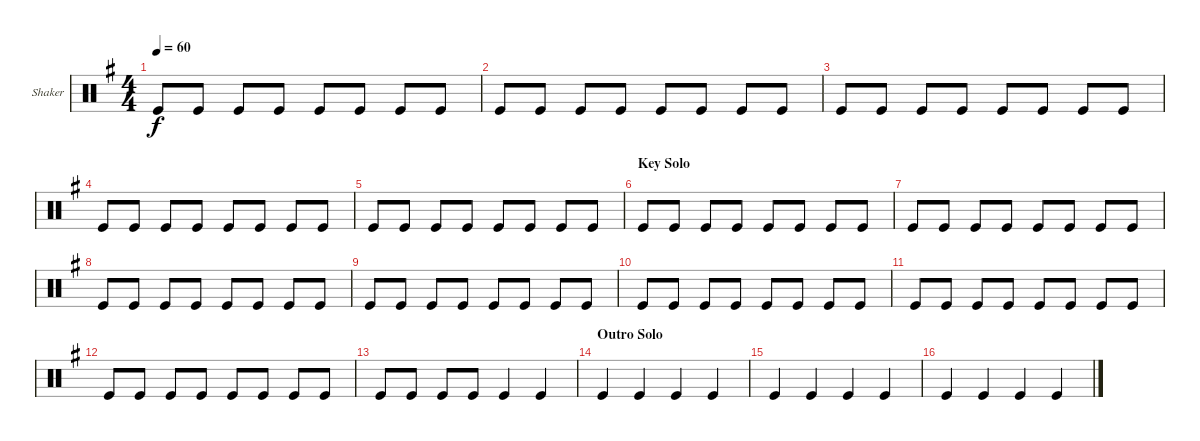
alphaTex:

\defaultSystemsLayout 4
\bracketExtendMode groupsimilarinstruments
\firstSystemTrackNameOrientation horizontal
\otherSystemsTrackNameOrientation horizontal
\track ("Shaker" "Shaker") {instrument percussion}
\staff {score}
\articulation defaults
\ts (4 4)
\tempo 60
\clef neutral
\scale
0.333333
\ks g "Kick (hit)".8{dy f} "Kick (hit)".8 "Kick (hit)".8 "Kick (hit)".8 "Kick (hit)".8 "Kick (hit)".8 "Kick (hit)".8 "Kick (hit)".8
|
\scale
0.333333 "Kick (hit)".8 "Kick (hit)".8 "Kick (hit)".8 "Kick (hit)".8 "Kick (hit)".8 "Kick (hit)".8 "Kick (hit)".8 "Kick (hit)".8 |
\scale
0.333333 "Kick (hit)".8 "Kick (hit)".8 "Kick (hit)".8 "Kick (hit)".8 "Kick (hit)".8 "Kick (hit)".8 "Kick (hit)".8 "Kick (hit)".8 |
\scale
0.333333 "Kick (hit)".8 "Kick (hit)".8 "Kick (hit)".8 "Kick (hit)".8 "Kick (hit)".8 "Kick (hit)".8 "Kick (hit)".8 "Kick (hit)".8 |
\scale
0.333333 "Kick (hit)".8 "Kick (hit)".8 "Kick (hit)".8 "Kick (hit)".8 "Kick (hit)".8 "Kick (hit)".8 "Kick (hit)".8 "Kick (hit)".8 |
\section ("" "Key Solo")
\scale
0.333333 "Kick (hit)".8 "Kick (hit)".8 "Kick (hit)".8 "Kick (hit)".8 "Kick (hit)".8 "Kick (hit)".8 "Kick (hit)".8 "Kick (hit)".8 |
\scale
0.333333 "Kick (hit)".8 "Kick (hit)".8 "Kick (hit)".8 "Kick (hit)".8 "Kick (hit)".8 "Kick (hit)".8 "Kick (hit)".8 "Kick (hit)".8 |
\scale
0.333333 "Kick (hit)".8 "Kick (hit)".8 "Kick (hit)".8 "Kick (hit)".8 "Kick (hit)".8 "Kick (hit)".8 "Kick (hit)".8 "Kick (hit)".8 |
"Kick (hit)".8 "Kick (hit)".8 "Kick (hit)".8 "Kick (hit)".8 "Kick (hit)".8 "Kick (hit)".8 "Kick (hit)".8 "Kick (hit)".8 |
\scale
0.333333 "Kick (hit)".8 "Kick (hit)".8 "Kick (hit)".8 "Kick (hit)".8 "Kick (hit)".8 "Kick (hit)".8 "Kick (hit)".8 "Kick (hit)".8 |
\scale
0.333333 "Kick (hit)".8 "Kick (hit)".8 "Kick (hit)".8 "Kick (hit)".8 "Kick (hit)".8 "Kick (hit)".8 "Kick (hit)".8 "Kick (hit)".8 |
\scale
0.333333 "Kick (hit)".8 "Kick (hit)".8 "Kick (hit)".8 "Kick (hit)".8 "Kick (hit)".8 "Kick (hit)".8 "Kick (hit)".8 "Kick (hit)".8 |
\scale
0.333333 "Kick (hit)".8 "Kick (hit)".8 "Kick (hit)".8 "Kick (hit)".8 "Kick (hit)".4 "Kick (hit)".4 |
\section ("" "Outro Solo")
\scale
0.333333 "Kick (hit)".4 "Kick (hit)".4 "Kick (hit)".4 "Kick (hit)".4 |
"Kick (hit)".4 "Kick (hit)".4 "Kick (hit)".4 "Kick (hit)".4 |
\scale
0.333333 "Kick (hit)".4 "Kick (hit)".4 "Kick (hit)".4 "Kick (hit)".4
